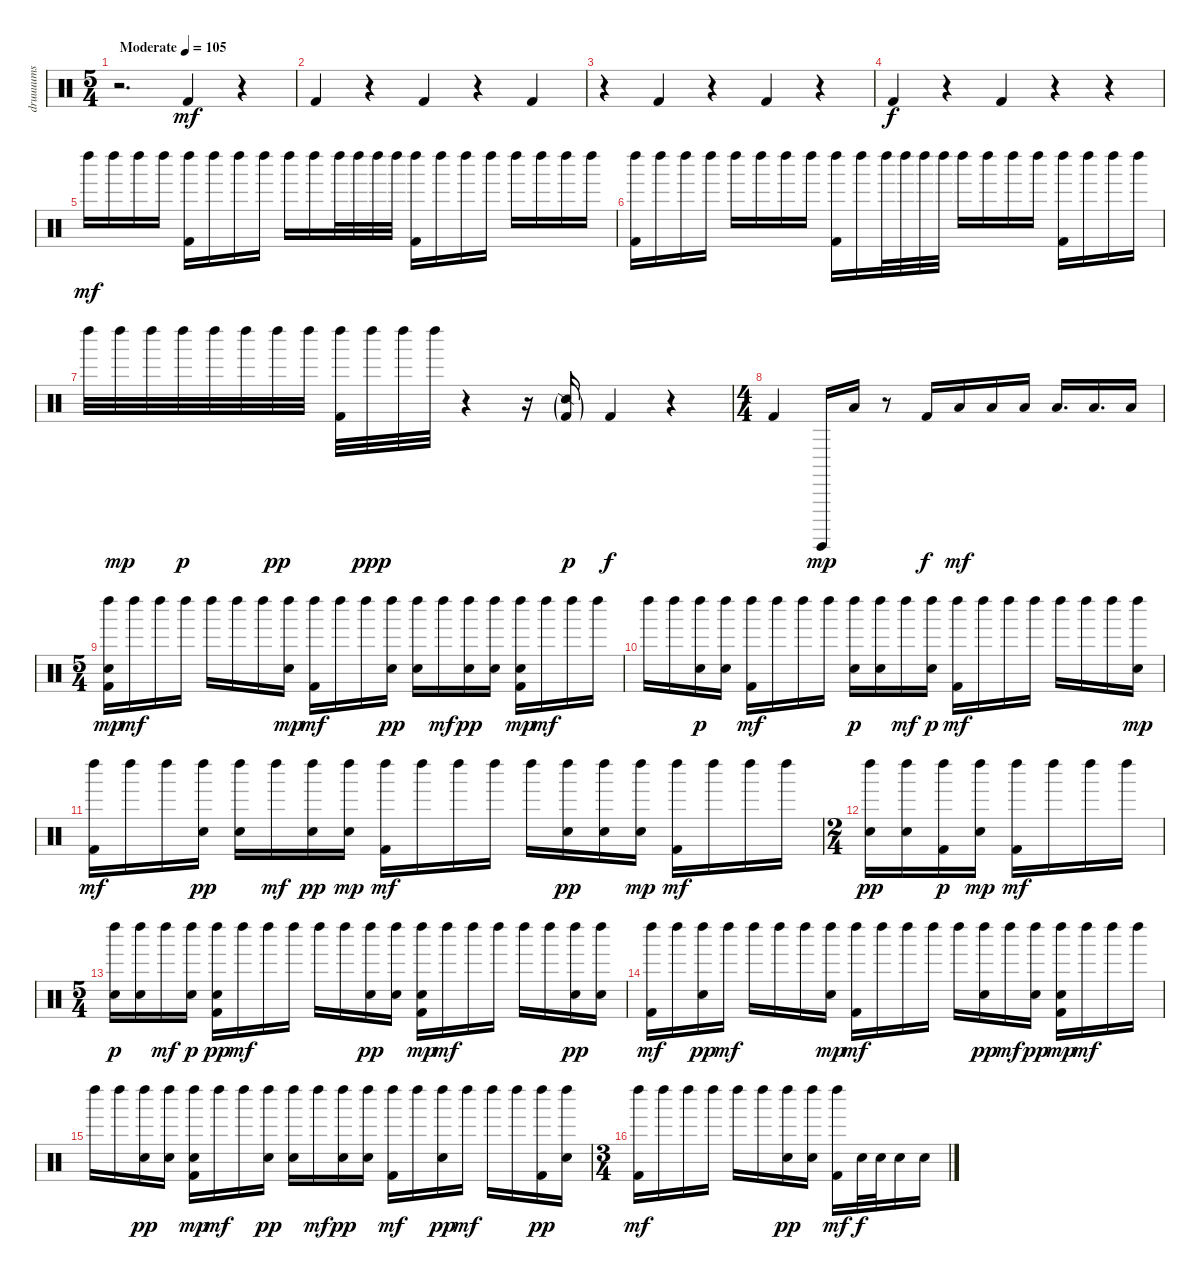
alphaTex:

\track ("druuuums" "druuuums") {instrument percussion}
\staff {score}
\articulation defaults
\ts (5 4)
\tempo (105 "Moderate")
\clef neutral
\ks c
r.2{d dy mf} "Kick (hit) 2".4 r.4 |
"Kick (hit) 2".4 r.4 "Kick (hit) 2".4 r.4 "Kick (hit) 2".4 |
r.4 "Kick (hit) 2".4 r.4 "Kick (hit) 2".4 r.4 |
"Kick (hit) 2".4{dy f} r.4 "Kick (hit) 2".4 r.4 r.4 |
"Left Maraca (hit)".16{dy mf} "Left Maraca (hit)".16 "Left Maraca (hit)".16 "Left Maraca (hit)".16 ("Left Maraca (hit)" "Kick (hit) 2").16 "Left Maraca (hit)".16 "Left Maraca (hit)".16 "Left Maraca (hit)".16 "Left Maraca (hit)".16 "Left Maraca (hit)".16 "Left Maraca (hit)".32 "Left Maraca (hit)".32 "Left Maraca (hit)".32 "Left Maraca (hit)".32 ("Left Maraca (hit)" "Kick (hit) 2").16 "Left Maraca (hit)".16 "Left Maraca (hit)".16 "Left Maraca (hit)".16 "Left Maraca (hit)".16 "Left Maraca (hit)".16 "Left Maraca (hit)".16 "Left Maraca (hit)".16 |
("Left Maraca (hit)" "Kick (hit) 2").16 "Left Maraca (hit)".16 "Left Maraca (hit)".16 "Left Maraca (hit)".16 "Left Maraca (hit)".16 "Left Maraca (hit)".16 "Left Maraca (hit)".16 "Left Maraca (hit)".16 ("Left Maraca (hit)" "Kick (hit) 2").16 "Left Maraca (hit)".16 "Left Maraca (hit)".32 "Left Maraca (hit)".32 "Left Maraca (hit)".32 "Left Maraca (hit)".32 "Left Maraca (hit)".16 "Left Maraca (hit)".16 "Left Maraca (hit)".16 "Left Maraca (hit)".16 ("Left Maraca (hit)" "Kick (hit) 2").16 "Left Maraca (hit)".16 "Left Maraca (hit)".16 "Left Maraca (hit)".16 |
"Left Maraca (hit)".32 "Left Maraca (hit)".32{dy mp} "Left Maraca (hit)".32 "Left Maraca (hit)".32{dy p} "Left Maraca (hit)".32 "Left Maraca (hit)".32 "Left Maraca (hit)".32{dy pp} "Left Maraca (hit)".32 ("Left Maraca (hit)" "Kick (hit) 2").32 "Left Maraca (hit)".32{dy ppp} "Left Maraca (hit)".32 "Left Maraca (hit)".32 r.4 r.16 ("Snare (side stick) 2"{g} "Kick (hit) 2"{g}).16{dy p} "Kick (hit) 2".4{dy f} r.4 |
\ts (4 4)
"Kick (hit) 2".4 "Surdo (hit)".16{dy mp} "Low Floor Tom (hit)".16 r.8 "Kick (hit) 2".16{dy f} "Low Floor Tom (hit)".16{dy mf} "Low Floor Tom (hit)".16 "Low Floor Tom (hit)".16 "Low Floor Tom (hit)".16{d} "Low Floor Tom (hit)".16{d} "Low Floor Tom (hit)".16 |
\ts (5 4)
("Left Maraca (hit)" "Electric Snare (hit)" "Kick (hit) 2").16{dy mp} "Left Maraca (hit)".16{dy mf} "Left Maraca (hit)".16 "Left Maraca (hit)".16 "Left Maraca (hit)".16 "Left Maraca (hit)".16 "Left Maraca (hit)".16 ("Left Maraca (hit)" "Electric Snare (hit)").16{dy mp} ("Left Maraca (hit)" "Kick (hit) 2").16{dy mf} "Left Maraca (hit)".16 "Left Maraca (hit)".16 ("Left Maraca (hit)" "Electric Snare (hit)").16{dy pp} ("Left Maraca (hit)" "Electric Snare (hit)").16 "Left Maraca (hit)".16{dy mf} ("Left Maraca (hit)" "Snare (hit) 2").16{dy pp} ("Left Maraca (hit)" "Electric Snare (hit)").16 ("Left Maraca (hit)" "Electric Snare (hit)" "Kick (hit) 2").16{dy mp} "Left Maraca (hit)".16{dy mf} "Left Maraca (hit)".16 "Left Maraca (hit)".16 |
"Left Maraca (hit)".16 "Left Maraca (hit)".16 ("Left Maraca (hit)" "Snare (hit) 2").16{dy p} ("Left Maraca (hit)" "Electric Snare (hit)").16 ("Left Maraca (hit)" "Kick (hit) 2").16{dy mf} "Left Maraca (hit)".16 "Left Maraca (hit)".16 "Left Maraca (hit)".16 ("Left Maraca (hit)" "Snare (hit) 2").16{dy p} ("Left Maraca (hit)" "Electric Snare (hit)").16 "Left Maraca (hit)".16{dy mf} ("Left Maraca (hit)" "Electric Snare (hit)").16{dy p} ("Left Maraca (hit)" "Kick (hit) 2").16{dy mf} "Left Maraca (hit)".16 "Left Maraca (hit)".16 "Left Maraca (hit)".16 "Left Maraca (hit)".16 "Left Maraca (hit)".16 "Left Maraca (hit)".16 ("Left Maraca (hit)" "Electric Snare (hit)").16{dy mp} |
("Left Maraca (hit)" "Kick (hit) 2").16{dy mf} "Left Maraca (hit)".16 "Left Maraca (hit)".16 ("Left Maraca (hit)" "Electric Snare (hit)").16{dy pp} ("Left Maraca (hit)" "Electric Snare (hit)").16 "Left Maraca (hit)".16{dy mf} ("Left Maraca (hit)" "Electric Snare (hit)").16{dy pp} ("Left Maraca (hit)" "Electric Snare (hit)").16{dy mp} ("Left Maraca (hit)" "Kick (hit) 2").16{dy mf} "Left Maraca (hit)".16 "Left Maraca (hit)".16 "Left Maraca (hit)".16 "Left Maraca (hit)".16 ("Left Maraca (hit)" "Electric Snare (hit)").16{dy pp} ("Left Maraca (hit)" "Electric Snare (hit)").16 ("Left Maraca (hit)" "Electric Snare (hit)").16{dy mp} ("Left Maraca (hit)" "Kick (hit) 2").16{dy mf} "Left Maraca (hit)".16 "Left Maraca (hit)".16 "Left Maraca (hit)".16 |
\ts (2 4)
("Left Maraca (hit)" "Electric Snare (hit)").16{dy pp} ("Left Maraca (hit)" "Electric Snare (hit)").16 ("Left Maraca (hit)" "Kick (hit) 2").16{dy p} ("Left Maraca (hit)" "Electric Snare (hit)").16{dy mp} ("Left Maraca (hit)" "Kick (hit) 2").16{dy mf} "Left Maraca (hit)".16 "Left Maraca (hit)".16 "Left Maraca (hit)".16 |
\ts (5 4)
("Left Maraca (hit)" "Electric Snare (hit)").16{dy p} ("Left Maraca (hit)" "Electric Snare (hit)").16 "Left Maraca (hit)".16{dy mf} ("Left Maraca (hit)" "Electric Snare (hit)").16{dy p} ("Left Maraca (hit)" "Electric Snare (hit)" "Kick (hit) 2").16{dy pp} "Left Maraca (hit)".16{dy mf} "Left Maraca (hit)".16 "Left Maraca (hit)".16 "Left Maraca (hit)".16 "Left Maraca (hit)".16 ("Left Maraca (hit)" "Electric Snare (hit)").16{dy pp} ("Left Maraca (hit)" "Snare (hit) 2").16 ("Left Maraca (hit)" "Electric Snare (hit)" "Kick (hit) 2").16{dy mp} "Left Maraca (hit)".16{dy mf} "Left Maraca (hit)".16 "Left Maraca (hit)".16 "Left Maraca (hit)".16 "Left Maraca (hit)".16 ("Left Maraca (hit)" "Electric Snare (hit)").16{dy pp} ("Left Maraca (hit)" "Electric Snare (hit)").16 |
("Left Maraca (hit)" "Kick (hit) 2").16{dy mf} "Left Maraca (hit)".16 ("Left Maraca (hit)" "Electric Snare (hit)").16{dy pp} "Left Maraca (hit)".16{dy mf} "Left Maraca (hit)".16 "Left Maraca (hit)".16 "Left Maraca (hit)".16 ("Left Maraca (hit)" "Electric Snare (hit)").16{dy mp} ("Left Maraca (hit)" "Kick (hit) 2").16{dy mf} "Left Maraca (hit)".16 "Left Maraca (hit)".16 "Left Maraca (hit)".16 "Left Maraca (hit)".16 ("Left Maraca (hit)" "Electric Snare (hit)").16{dy pp} "Left Maraca (hit)".16{dy mf} ("Left Maraca (hit)" "Electric Snare (hit)").16{dy pp} ("Left Maraca (hit)" "Electric Snare (hit)" "Kick (hit) 2").16{dy mp} "Left Maraca (hit)".16{dy mf} "Left Maraca (hit)".16 "Left Maraca (hit)".16 |
"Left Maraca (hit)".16 "Left Maraca (hit)".16 ("Left Maraca (hit)" "Electric Snare (hit)").16{dy pp} ("Left Maraca (hit)" "Snare (hit) 2").16 ("Left Maraca (hit)" "Electric Snare (hit)" "Kick (hit) 2").16{dy mp} "Left Maraca (hit)".16{dy mf} "Left Maraca (hit)".16 ("Left Maraca (hit)" "Electric Snare (hit)").16{dy pp} ("Left Maraca (hit)" "Electric Snare (hit)").16 "Left Maraca (hit)".16{dy mf} ("Left Maraca (hit)" "Electric Snare (hit)").16{dy pp} ("Left Maraca (hit)" "Electric Snare (hit)").16 ("Left Maraca (hit)" "Kick (hit) 2").16{dy mf} "Left Maraca (hit)".16 ("Left Maraca (hit)" "Electric Snare (hit)").16{dy pp} "Left Maraca (hit)".16{dy mf} "Left Maraca (hit)".16 "Left Maraca (hit)".16 ("Left Maraca (hit)" "Kick (hit) 2").16{dy pp} ("Left Maraca (hit)" "Electric Snare (hit)").16 |
\ts (3 4)
("Left Maraca (hit)" "Kick (hit) 2").16{dy mf} "Left Maraca (hit)".16 "Left Maraca (hit)".16 "Left Maraca (hit)".16 "Left Maraca (hit)".16 "Left Maraca (hit)".16 ("Left Maraca (hit)" "Electric Snare (hit)").16{dy pp} ("Left Maraca (hit)" "Snare (hit) 2").16 ("Left Maraca (hit)" "Kick (hit) 2").16{dy mf} "Electric Snare (hit)".32{dy f} "Electric Snare (hit)".32 "Electric Snare (hit)".16 "Electric Snare (hit)".16
